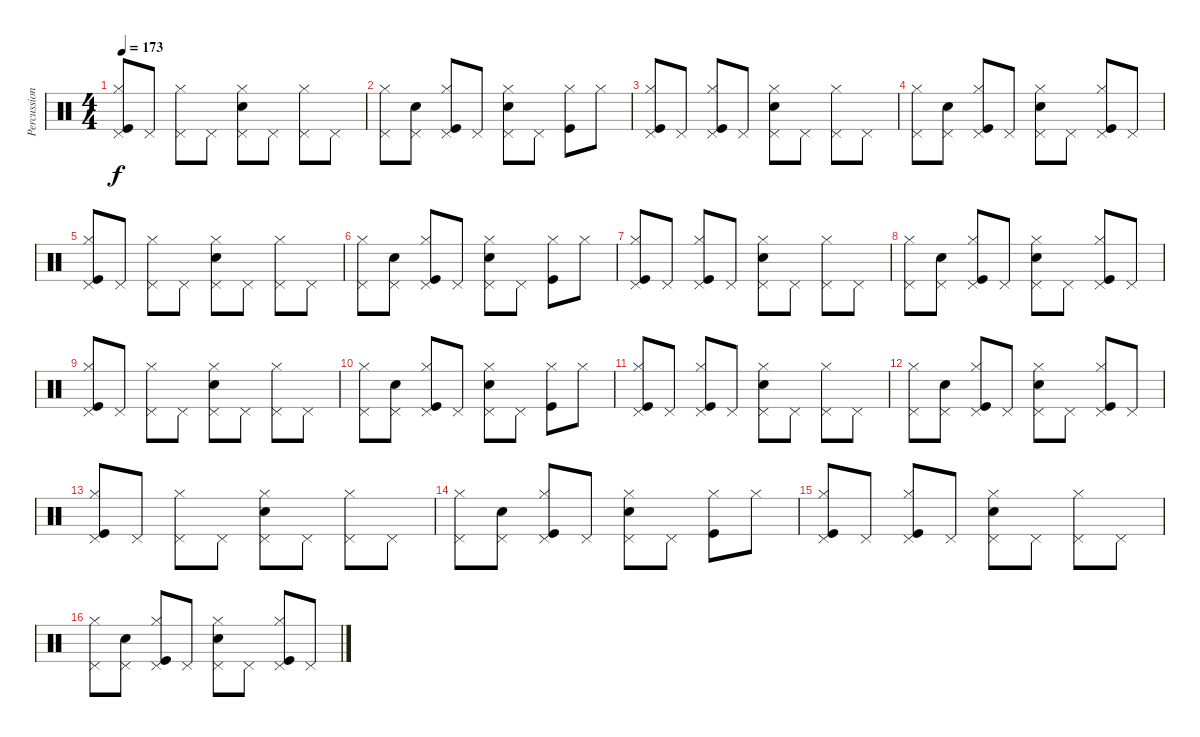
\track ("Percussion" "Percussion") {instrument percussion}
\staff {score}
\articulation defaults
\ts (4 4)
\tempo 173
\clef neutral
\ks c
("Kick (hit)" "Hi-Hat (closed)" "Pedal Hi-Hat (hit)").8{dy f} "Pedal Hi-Hat (hit)".8 ("Hi-Hat (closed)" "Pedal Hi-Hat (hit)").8 "Pedal Hi-Hat (hit)".8 ("Snare (hit) 2" "Hi-Hat (closed)" "Pedal Hi-Hat (hit)").8 "Pedal Hi-Hat (hit)".8 ("Hi-Hat (closed)" "Pedal Hi-Hat (hit)").8 "Pedal Hi-Hat (hit)".8 |
("Hi-Hat (closed)" "Pedal Hi-Hat (hit)").8 ("Snare (hit) 2" "Pedal Hi-Hat (hit)").8 ("Kick (hit)" "Hi-Hat (closed)" "Pedal Hi-Hat (hit)").8 "Pedal Hi-Hat (hit)".8 ("Snare (hit) 2" "Hi-Hat (closed)" "Pedal Hi-Hat (hit)").8 "Pedal Hi-Hat (hit)".8 ("Kick (hit)" "Hi-Hat (closed)").8 "Hi-Hat (closed)".8 |
("Kick (hit)" "Hi-Hat (closed)" "Pedal Hi-Hat (hit)").8 "Pedal Hi-Hat (hit)".8 ("Kick (hit)" "Hi-Hat (closed)" "Pedal Hi-Hat (hit)").8 "Pedal Hi-Hat (hit)".8 ("Snare (hit) 2" "Hi-Hat (closed)" "Pedal Hi-Hat (hit)").8 "Pedal Hi-Hat (hit)".8 ("Hi-Hat (closed)" "Pedal Hi-Hat (hit)").8 "Pedal Hi-Hat (hit)".8 |
("Hi-Hat (closed)" "Pedal Hi-Hat (hit)").8 ("Snare (hit) 2" "Pedal Hi-Hat (hit)").8 ("Kick (hit)" "Hi-Hat (closed)" "Pedal Hi-Hat (hit)").8 "Pedal Hi-Hat (hit)".8 ("Snare (hit) 2" "Hi-Hat (closed)" "Pedal Hi-Hat (hit)").8 "Pedal Hi-Hat (hit)".8 ("Kick (hit)" "Hi-Hat (closed)" "Pedal Hi-Hat (hit)").8 "Pedal Hi-Hat (hit)".8 |
("Kick (hit)" "Hi-Hat (closed)" "Pedal Hi-Hat (hit)").8 "Pedal Hi-Hat (hit)".8 ("Hi-Hat (closed)" "Pedal Hi-Hat (hit)").8 "Pedal Hi-Hat (hit)".8 ("Snare (hit) 2" "Hi-Hat (closed)" "Pedal Hi-Hat (hit)").8 "Pedal Hi-Hat (hit)".8 ("Hi-Hat (closed)" "Pedal Hi-Hat (hit)").8 "Pedal Hi-Hat (hit)".8 |
("Hi-Hat (closed)" "Pedal Hi-Hat (hit)").8 ("Snare (hit) 2" "Pedal Hi-Hat (hit)").8 ("Kick (hit)" "Hi-Hat (closed)" "Pedal Hi-Hat (hit)").8 "Pedal Hi-Hat (hit)".8 ("Snare (hit) 2" "Hi-Hat (closed)" "Pedal Hi-Hat (hit)").8 "Pedal Hi-Hat (hit)".8 ("Kick (hit)" "Hi-Hat (closed)").8 "Hi-Hat (closed)".8 |
("Kick (hit)" "Hi-Hat (closed)" "Pedal Hi-Hat (hit)").8 "Pedal Hi-Hat (hit)".8 ("Kick (hit)" "Hi-Hat (closed)" "Pedal Hi-Hat (hit)").8 "Pedal Hi-Hat (hit)".8 ("Snare (hit) 2" "Hi-Hat (closed)" "Pedal Hi-Hat (hit)").8 "Pedal Hi-Hat (hit)".8 ("Hi-Hat (closed)" "Pedal Hi-Hat (hit)").8 "Pedal Hi-Hat (hit)".8 |
("Hi-Hat (closed)" "Pedal Hi-Hat (hit)").8 ("Snare (hit) 2" "Pedal Hi-Hat (hit)").8 ("Kick (hit)" "Hi-Hat (closed)" "Pedal Hi-Hat (hit)").8 "Pedal Hi-Hat (hit)".8 ("Snare (hit) 2" "Hi-Hat (closed)" "Pedal Hi-Hat (hit)").8 "Pedal Hi-Hat (hit)".8 ("Kick (hit)" "Hi-Hat (closed)" "Pedal Hi-Hat (hit)").8 "Pedal Hi-Hat (hit)".8 |
("Kick (hit)" "Hi-Hat (closed)" "Pedal Hi-Hat (hit)").8 "Pedal Hi-Hat (hit)".8 ("Hi-Hat (closed)" "Pedal Hi-Hat (hit)").8 "Pedal Hi-Hat (hit)".8 ("Snare (hit) 2" "Hi-Hat (closed)" "Pedal Hi-Hat (hit)").8 "Pedal Hi-Hat (hit)".8 ("Hi-Hat (closed)" "Pedal Hi-Hat (hit)").8 "Pedal Hi-Hat (hit)".8 |
("Hi-Hat (closed)" "Pedal Hi-Hat (hit)").8 ("Snare (hit) 2" "Pedal Hi-Hat (hit)").8 ("Kick (hit)" "Hi-Hat (closed)" "Pedal Hi-Hat (hit)").8 "Pedal Hi-Hat (hit)".8 ("Snare (hit) 2" "Hi-Hat (closed)" "Pedal Hi-Hat (hit)").8 "Pedal Hi-Hat (hit)".8 ("Kick (hit)" "Hi-Hat (closed)").8 "Hi-Hat (closed)".8 |
("Kick (hit)" "Hi-Hat (closed)" "Pedal Hi-Hat (hit)").8 "Pedal Hi-Hat (hit)".8 ("Kick (hit)" "Hi-Hat (closed)" "Pedal Hi-Hat (hit)").8 "Pedal Hi-Hat (hit)".8 ("Snare (hit) 2" "Hi-Hat (closed)" "Pedal Hi-Hat (hit)").8 "Pedal Hi-Hat (hit)".8 ("Hi-Hat (closed)" "Pedal Hi-Hat (hit)").8 "Pedal Hi-Hat (hit)".8 |
("Hi-Hat (closed)" "Pedal Hi-Hat (hit)").8 ("Snare (hit) 2" "Pedal Hi-Hat (hit)").8 ("Kick (hit)" "Hi-Hat (closed)" "Pedal Hi-Hat (hit)").8 "Pedal Hi-Hat (hit)".8 ("Snare (hit) 2" "Hi-Hat (closed)" "Pedal Hi-Hat (hit)").8 "Pedal Hi-Hat (hit)".8 ("Kick (hit)" "Hi-Hat (closed)" "Pedal Hi-Hat (hit)").8 "Pedal Hi-Hat (hit)".8 |
("Kick (hit)" "Hi-Hat (closed)" "Pedal Hi-Hat (hit)").8 "Pedal Hi-Hat (hit)".8 ("Hi-Hat (closed)" "Pedal Hi-Hat (hit)").8 "Pedal Hi-Hat (hit)".8 ("Snare (hit) 2" "Hi-Hat (closed)" "Pedal Hi-Hat (hit)").8 "Pedal Hi-Hat (hit)".8 ("Hi-Hat (closed)" "Pedal Hi-Hat (hit)").8 "Pedal Hi-Hat (hit)".8 |
("Hi-Hat (closed)" "Pedal Hi-Hat (hit)").8 ("Snare (hit) 2" "Pedal Hi-Hat (hit)").8 ("Kick (hit)" "Hi-Hat (closed)" "Pedal Hi-Hat (hit)").8 "Pedal Hi-Hat (hit)".8 ("Snare (hit) 2" "Hi-Hat (closed)" "Pedal Hi-Hat (hit)").8 "Pedal Hi-Hat (hit)".8 ("Kick (hit)" "Hi-Hat (closed)").8 "Hi-Hat (closed)".8 |
("Kick (hit)" "Hi-Hat (closed)" "Pedal Hi-Hat (hit)").8 "Pedal Hi-Hat (hit)".8 ("Kick (hit)" "Hi-Hat (closed)" "Pedal Hi-Hat (hit)").8 "Pedal Hi-Hat (hit)".8 ("Snare (hit) 2" "Hi-Hat (closed)" "Pedal Hi-Hat (hit)").8 "Pedal Hi-Hat (hit)".8 ("Hi-Hat (closed)" "Pedal Hi-Hat (hit)").8 "Pedal Hi-Hat (hit)".8 |
("Hi-Hat (closed)" "Pedal Hi-Hat (hit)").8 ("Snare (hit) 2" "Pedal Hi-Hat (hit)").8 ("Kick (hit)" "Hi-Hat (closed)" "Pedal Hi-Hat (hit)").8 "Pedal Hi-Hat (hit)".8 ("Snare (hit) 2" "Hi-Hat (closed)" "Pedal Hi-Hat (hit)").8 "Pedal Hi-Hat (hit)".8 ("Kick (hit)" "Hi-Hat (closed)" "Pedal Hi-Hat (hit)").8 "Pedal Hi-Hat (hit)".8
